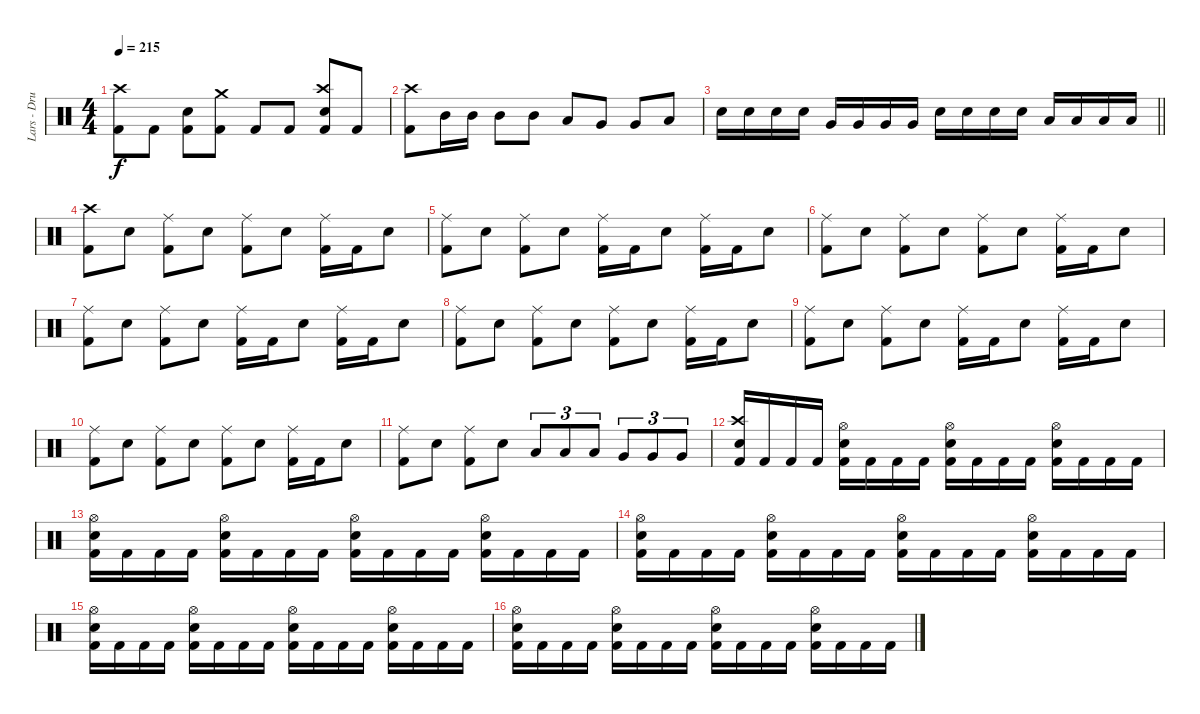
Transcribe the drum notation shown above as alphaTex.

\track ("Lars - Drums" "Lars - Dru") {instrument percussion}
\staff {score}
\articulation defaults
\ts (4 4)
\tempo 215
\clef neutral
\ks c
("Kick (hit) 2" "Crash high (hit)").8{dy f} "Kick (hit) 2".8 ("Kick (hit) 2" "Electric Snare (hit)").8 ("Kick (hit) 2" "Crash medium (hit)").8 "Kick (hit) 2".8 "Kick (hit) 2".8 ("Kick (hit) 2" "Electric Snare (hit)" "Crash high (hit)").8 "Kick (hit) 2".8 |
("Kick (hit) 2" "Crash high (hit)").8 "Mid Tom (hit)".16 "Mid Tom (hit)".16 "Mid Tom (hit)".8 "Mid Tom (hit)".8 "Low Tom (hit)".8 "Very Low Tom (hit)".8 "Very Low Tom (hit)".8 "Low Floor Tom (hit)".8 |
\barLineRight lightlight "Electric Snare (hit)".16 "Electric Snare (hit)".16 "Electric Snare (hit)".16 "Electric Snare (hit)".16 "Very Low Tom (hit)".16 "Very Low Tom (hit)".16 "Very Low Tom (hit)".16 "Very Low Tom (hit)".16 "Electric Snare (hit)".16 "Electric Snare (hit)".16 "Electric Snare (hit)".16 "Electric Snare (hit)".16 "Low Floor Tom (hit)".16 "Low Floor Tom (hit)".16 "Low Floor Tom (hit)".16 "Low Floor Tom (hit)".16
|
\section ("" "")
("Kick (hit) 2" "Crash high (hit)").8 "Electric Snare (hit)".8 ("Kick (hit) 2" "Ride (middle)").8 "Electric Snare (hit)".8 ("Kick (hit) 2" "Ride (middle)").8 "Electric Snare (hit)".8 ("Kick (hit) 2" "Ride (middle)").16 "Kick (hit) 2".16 "Electric Snare (hit)".8 |
("Kick (hit) 2" "Ride (middle)").8 "Electric Snare (hit)".8 ("Kick (hit) 2" "Ride (middle)").8 "Electric Snare (hit)".8 ("Kick (hit) 2" "Ride (middle)").16 "Kick (hit) 2".16 "Electric Snare (hit)".8 ("Kick (hit) 2" "Ride (middle)").16 "Kick (hit) 2".16 "Electric Snare (hit)".8 |
("Kick (hit) 2" "Ride (middle)").8 "Electric Snare (hit)".8 ("Kick (hit) 2" "Ride (middle)").8 "Electric Snare (hit)".8 ("Kick (hit) 2" "Ride (middle)").8 "Electric Snare (hit)".8 ("Kick (hit) 2" "Ride (middle)").16 "Kick (hit) 2".16 "Electric Snare (hit)".8 |
("Kick (hit) 2" "Ride (middle)").8 "Electric Snare (hit)".8 ("Kick (hit) 2" "Ride (middle)").8 "Electric Snare (hit)".8 ("Kick (hit) 2" "Ride (middle)").16 "Kick (hit) 2".16 "Electric Snare (hit)".8 ("Kick (hit) 2" "Ride (middle)").16 "Kick (hit) 2".16 "Electric Snare (hit)".8 |
("Kick (hit) 2" "Ride (middle)").8 "Electric Snare (hit)".8 ("Kick (hit) 2" "Ride (middle)").8 "Electric Snare (hit)".8 ("Kick (hit) 2" "Ride (middle)").8 "Electric Snare (hit)".8 ("Kick (hit) 2" "Ride (middle)").16 "Kick (hit) 2".16 "Electric Snare (hit)".8 |
("Kick (hit) 2" "Ride (middle)").8 "Electric Snare (hit)".8 ("Kick (hit) 2" "Ride (middle)").8 "Electric Snare (hit)".8 ("Kick (hit) 2" "Ride (middle)").16 "Kick (hit) 2".16 "Electric Snare (hit)".8 ("Kick (hit) 2" "Ride (middle)").16 "Kick (hit) 2".16 "Electric Snare (hit)".8 |
("Kick (hit) 2" "Ride (middle)").8 "Electric Snare (hit)".8 ("Kick (hit) 2" "Ride (middle)").8 "Electric Snare (hit)".8 ("Kick (hit) 2" "Ride (middle)").8 "Electric Snare (hit)".8 ("Kick (hit) 2" "Ride (middle)").16 "Kick (hit) 2".16 "Electric Snare (hit)".8 |
("Kick (hit) 2" "Ride (middle)").8 "Electric Snare (hit)".8 ("Kick (hit) 2" "Ride (middle)").8 "Electric Snare (hit)".8 "Low Tom (hit)".8{tu (3 2)} "Low Tom (hit)".8{tu (3 2)} "Low Tom (hit)".8{tu (3 2)} "Very Low Tom (hit)".8{tu (3 2)} "Very Low Tom (hit)".8{tu (3 2)} "Very Low Tom (hit)".8{tu (3 2)} |
("Kick (hit) 2" "Electric Snare (hit)" "Crash high (hit)").16 "Kick (hit) 2".16 "Kick (hit) 2".16 "Kick (hit) 2".16 ("Kick (hit) 2" "Electric Snare (hit)" "Hi-Hat (open)").16 "Kick (hit) 2".16 "Kick (hit) 2".16 "Kick (hit) 2".16 ("Kick (hit) 2" "Electric Snare (hit)" "Hi-Hat (open)").16 "Kick (hit) 2".16 "Kick (hit) 2".16 "Kick (hit) 2".16 ("Kick (hit) 2" "Electric Snare (hit)" "Hi-Hat (open)").16 "Kick (hit) 2".16 "Kick (hit) 2".16 "Kick (hit) 2".16 |
("Kick (hit) 2" "Electric Snare (hit)" "Hi-Hat (open)").16 "Kick (hit) 2".16 "Kick (hit) 2".16 "Kick (hit) 2".16 ("Kick (hit) 2" "Electric Snare (hit)" "Hi-Hat (open)").16 "Kick (hit) 2".16 "Kick (hit) 2".16 "Kick (hit) 2".16 ("Kick (hit) 2" "Electric Snare (hit)" "Hi-Hat (open)").16 "Kick (hit) 2".16 "Kick (hit) 2".16 "Kick (hit) 2".16 ("Kick (hit) 2" "Electric Snare (hit)" "Hi-Hat (open)").16 "Kick (hit) 2".16 "Kick (hit) 2".16 "Kick (hit) 2".16 |
("Kick (hit) 2" "Electric Snare (hit)" "Hi-Hat (open)").16 "Kick (hit) 2".16 "Kick (hit) 2".16 "Kick (hit) 2".16 ("Kick (hit) 2" "Electric Snare (hit)" "Hi-Hat (open)").16 "Kick (hit) 2".16 "Kick (hit) 2".16 "Kick (hit) 2".16 ("Kick (hit) 2" "Electric Snare (hit)" "Hi-Hat (open)").16 "Kick (hit) 2".16 "Kick (hit) 2".16 "Kick (hit) 2".16 ("Kick (hit) 2" "Electric Snare (hit)" "Hi-Hat (open)").16 "Kick (hit) 2".16 "Kick (hit) 2".16 "Kick (hit) 2".16 |
("Kick (hit) 2" "Electric Snare (hit)" "Hi-Hat (open)").16 "Kick (hit) 2".16 "Kick (hit) 2".16 "Kick (hit) 2".16 ("Kick (hit) 2" "Electric Snare (hit)" "Hi-Hat (open)").16 "Kick (hit) 2".16 "Kick (hit) 2".16 "Kick (hit) 2".16 ("Kick (hit) 2" "Electric Snare (hit)" "Hi-Hat (open)").16 "Kick (hit) 2".16 "Kick (hit) 2".16 "Kick (hit) 2".16 ("Kick (hit) 2" "Electric Snare (hit)" "Hi-Hat (open)").16 "Kick (hit) 2".16 "Kick (hit) 2".16 "Kick (hit) 2".16 |
("Kick (hit) 2" "Electric Snare (hit)" "Hi-Hat (open)").16 "Kick (hit) 2".16 "Kick (hit) 2".16 "Kick (hit) 2".16 ("Kick (hit) 2" "Electric Snare (hit)" "Hi-Hat (open)").16 "Kick (hit) 2".16 "Kick (hit) 2".16 "Kick (hit) 2".16 ("Kick (hit) 2" "Electric Snare (hit)" "Hi-Hat (open)").16 "Kick (hit) 2".16 "Kick (hit) 2".16 "Kick (hit) 2".16 ("Kick (hit) 2" "Electric Snare (hit)" "Hi-Hat (open)").16 "Kick (hit) 2".16 "Kick (hit) 2".16 "Kick (hit) 2".16
